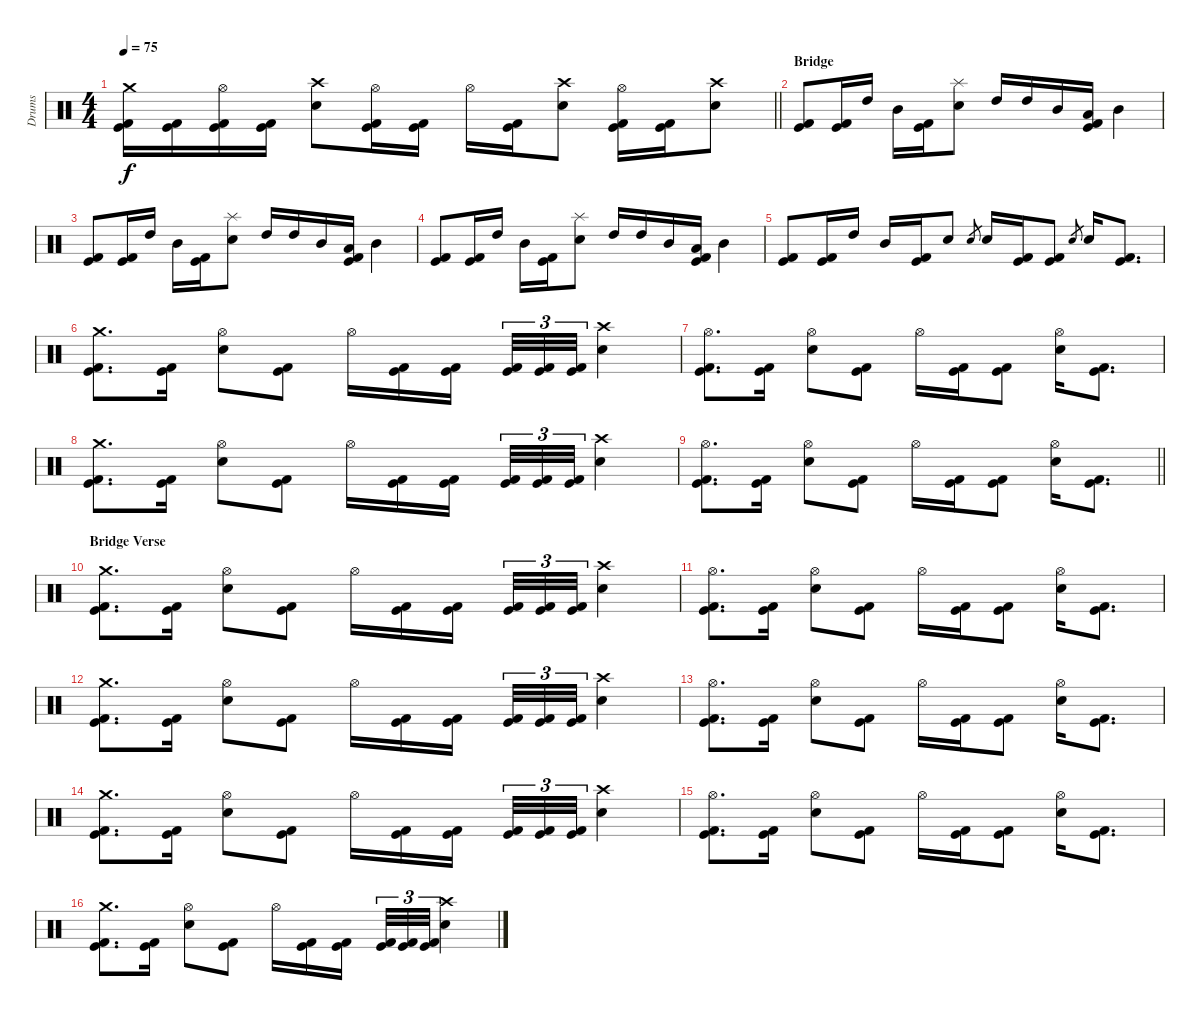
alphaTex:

\track ("Drums" "Drums") {instrument percussion}
\staff {score}
\articulation defaults
\ts (4 4)
\tempo 75
\clef neutral
\barLineRight lightlight
\ks c
("Crash medium (hit)" "Kick (hit) 2" "Kick (hit)").16{dy f} ("Kick (hit) 2" "Kick (hit)").16 ("Hi-Hat (open)" "Kick (hit) 2" "Kick (hit)").16 ("Kick (hit) 2" "Kick (hit)").16 ("Crash high (hit)" "Electric Snare (hit)").8 ("Hi-Hat (open)" "Kick (hit) 2" "Kick (hit)").16 ("Kick (hit) 2" "Kick (hit)").16 "Hi-Hat (open)".16 ("Kick (hit) 2" "Kick (hit)").16 ("Crash high (hit)" "Electric Snare (hit)").8 ("Hi-Hat (open)" "Kick (hit) 2" "Kick (hit)").16 ("Kick (hit) 2" "Kick (hit)").16 ("Crash high (hit)" "Electric Snare (hit)").8 |
\section ("" "Bridge")
("Kick (hit) 2" "Kick (hit)").8 ("Kick (hit) 2" "Kick (hit)").16 "High Tom (hit)".16 "Mid Tom (hit)".16 ("Kick (hit) 2" "Kick (hit)").16 ("Splash (hit)" "Electric Snare (hit)").8 "High Tom (hit)".16 "High Tom (hit)".16 "Mid Tom (hit)".16 ("Low Tom (hit)" "Kick (hit) 2" "Kick (hit)").16 "Mid Tom (hit)".4 |
("Kick (hit) 2" "Kick (hit)").8 ("Kick (hit) 2" "Kick (hit)").16 "High Tom (hit)".16 "Mid Tom (hit)".16 ("Kick (hit) 2" "Kick (hit)").16 ("Splash (hit)" "Electric Snare (hit)").8 "High Tom (hit)".16 "High Tom (hit)".16 "Mid Tom (hit)".16 ("Low Tom (hit)" "Kick (hit) 2" "Kick (hit)").16 "Mid Tom (hit)".4 |
("Kick (hit) 2" "Kick (hit)").8 ("Kick (hit) 2" "Kick (hit)").16 "High Tom (hit)".16 "Mid Tom (hit)".16 ("Kick (hit) 2" "Kick (hit)").16 ("Splash (hit)" "Electric Snare (hit)").8 "High Tom (hit)".16 "High Tom (hit)".16 "Mid Tom (hit)".16 ("Low Tom (hit)" "Kick (hit) 2" "Kick (hit)").16 "Mid Tom (hit)".4 |
("Kick (hit) 2" "Kick (hit)").8 ("Kick (hit) 2" "Kick (hit)").16 "High Tom (hit)".16 "Mid Tom (hit)".16 ("Kick (hit) 2" "Kick (hit)").16 "Electric Snare (hit)".8 "Electric Snare (hit)".8{gr} "Electric Snare (hit)".16 ("Kick (hit) 2" "Kick (hit)").16 ("Kick (hit) 2" "Kick (hit)").8 "Electric Snare (hit)".8{gr} "Electric Snare (hit)".16 ("Kick (hit) 2" "Kick (hit)").8{d} |
("Crash medium (hit)" "Kick (hit) 2" "Kick (hit)").8{d} ("Kick (hit) 2" "Kick (hit)").16 ("Hi-Hat (open)" "Electric Snare (hit)").8 ("Kick (hit) 2" "Kick (hit)").8 "Hi-Hat (open)".16 ("Kick (hit) 2" "Kick (hit)").16 ("Kick (hit) 2" "Kick (hit)").16 ("Kick (hit) 2" "Kick (hit)").32{tu (3 2)} ("Kick (hit) 2" "Kick (hit)").32{tu (3 2)} ("Kick (hit) 2" "Kick (hit)").32{tu (3 2)} ("Crash high (hit)" "Electric Snare (hit)").4 |
("Hi-Hat (open)" "Kick (hit) 2" "Kick (hit)").8{d} ("Kick (hit) 2" "Kick (hit)").16 ("Hi-Hat (open)" "Electric Snare (hit)").8 ("Kick (hit) 2" "Kick (hit)").8 "Hi-Hat (open)".16 ("Kick (hit) 2" "Kick (hit)").16 ("Kick (hit) 2" "Kick (hit)").8 ("Hi-Hat (open)" "Electric Snare (hit)").16 ("Kick (hit) 2" "Kick (hit)").8{d} |
("Crash medium (hit)" "Kick (hit) 2" "Kick (hit)").8{d} ("Kick (hit) 2" "Kick (hit)").16 ("Hi-Hat (open)" "Electric Snare (hit)").8 ("Kick (hit) 2" "Kick (hit)").8 "Hi-Hat (open)".16 ("Kick (hit) 2" "Kick (hit)").16 ("Kick (hit) 2" "Kick (hit)").16 ("Kick (hit) 2" "Kick (hit)").32{tu (3 2)} ("Kick (hit) 2" "Kick (hit)").32{tu (3 2)} ("Kick (hit) 2" "Kick (hit)").32{tu (3 2)} ("Crash high (hit)" "Electric Snare (hit)").4 |
\barLineRight lightlight
("Hi-Hat (open)" "Kick (hit) 2" "Kick (hit)").8{d} ("Kick (hit) 2" "Kick (hit)").16 ("Hi-Hat (open)" "Electric Snare (hit)").8 ("Kick (hit) 2" "Kick (hit)").8 "Hi-Hat (open)".16 ("Kick (hit) 2" "Kick (hit)").16 ("Kick (hit) 2" "Kick (hit)").8 ("Hi-Hat (open)" "Electric Snare (hit)").16 ("Kick (hit) 2" "Kick (hit)").8{d} |
\section ("" "Bridge Verse")
("Crash medium (hit)" "Kick (hit) 2" "Kick (hit)").8{d} ("Kick (hit) 2" "Kick (hit)").16 ("Hi-Hat (open)" "Electric Snare (hit)").8 ("Kick (hit) 2" "Kick (hit)").8 "Hi-Hat (open)".16 ("Kick (hit) 2" "Kick (hit)").16 ("Kick (hit) 2" "Kick (hit)").16 ("Kick (hit) 2" "Kick (hit)").32{tu (3 2)} ("Kick (hit) 2" "Kick (hit)").32{tu (3 2)} ("Kick (hit) 2" "Kick (hit)").32{tu (3 2)} ("Crash high (hit)" "Electric Snare (hit)").4 |
("Hi-Hat (open)" "Kick (hit) 2" "Kick (hit)").8{d} ("Kick (hit) 2" "Kick (hit)").16 ("Hi-Hat (open)" "Electric Snare (hit)").8 ("Kick (hit) 2" "Kick (hit)").8 "Hi-Hat (open)".16 ("Kick (hit) 2" "Kick (hit)").16 ("Kick (hit) 2" "Kick (hit)").8 ("Hi-Hat (open)" "Electric Snare (hit)").16 ("Kick (hit) 2" "Kick (hit)").8{d} |
("Crash medium (hit)" "Kick (hit) 2" "Kick (hit)").8{d} ("Kick (hit) 2" "Kick (hit)").16 ("Hi-Hat (open)" "Electric Snare (hit)").8 ("Kick (hit) 2" "Kick (hit)").8 "Hi-Hat (open)".16 ("Kick (hit) 2" "Kick (hit)").16 ("Kick (hit) 2" "Kick (hit)").16 ("Kick (hit) 2" "Kick (hit)").32{tu (3 2)} ("Kick (hit) 2" "Kick (hit)").32{tu (3 2)} ("Kick (hit) 2" "Kick (hit)").32{tu (3 2)} ("Crash high (hit)" "Electric Snare (hit)").4 |
("Hi-Hat (open)" "Kick (hit) 2" "Kick (hit)").8{d} ("Kick (hit) 2" "Kick (hit)").16 ("Hi-Hat (open)" "Electric Snare (hit)").8 ("Kick (hit) 2" "Kick (hit)").8 "Hi-Hat (open)".16 ("Kick (hit) 2" "Kick (hit)").16 ("Kick (hit) 2" "Kick (hit)").8 ("Hi-Hat (open)" "Electric Snare (hit)").16 ("Kick (hit) 2" "Kick (hit)").8{d} |
("Crash medium (hit)" "Kick (hit) 2" "Kick (hit)").8{d} ("Kick (hit) 2" "Kick (hit)").16 ("Hi-Hat (open)" "Electric Snare (hit)").8 ("Kick (hit) 2" "Kick (hit)").8 "Hi-Hat (open)".16 ("Kick (hit) 2" "Kick (hit)").16 ("Kick (hit) 2" "Kick (hit)").16 ("Kick (hit) 2" "Kick (hit)").32{tu (3 2)} ("Kick (hit) 2" "Kick (hit)").32{tu (3 2)} ("Kick (hit) 2" "Kick (hit)").32{tu (3 2)} ("Crash high (hit)" "Electric Snare (hit)").4 |
("Hi-Hat (open)" "Kick (hit) 2" "Kick (hit)").8{d} ("Kick (hit) 2" "Kick (hit)").16 ("Hi-Hat (open)" "Electric Snare (hit)").8 ("Kick (hit) 2" "Kick (hit)").8 "Hi-Hat (open)".16 ("Kick (hit) 2" "Kick (hit)").16 ("Kick (hit) 2" "Kick (hit)").8 ("Hi-Hat (open)" "Electric Snare (hit)").16 ("Kick (hit) 2" "Kick (hit)").8{d} |
("Crash medium (hit)" "Kick (hit) 2" "Kick (hit)").8{d} ("Kick (hit) 2" "Kick (hit)").16 ("Hi-Hat (open)" "Electric Snare (hit)").8 ("Kick (hit) 2" "Kick (hit)").8 "Hi-Hat (open)".16 ("Kick (hit) 2" "Kick (hit)").16 ("Kick (hit) 2" "Kick (hit)").16 ("Kick (hit) 2" "Kick (hit)").32{tu (3 2)} ("Kick (hit) 2" "Kick (hit)").32{tu (3 2)} ("Kick (hit) 2" "Kick (hit)").32{tu (3 2)} ("Crash high (hit)" "Electric Snare (hit)").4
